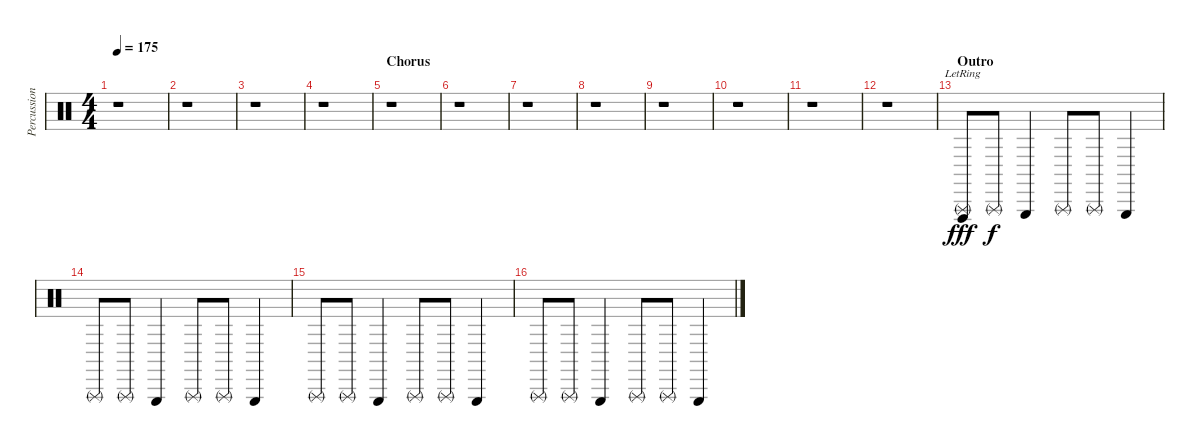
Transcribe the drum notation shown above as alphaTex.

\track ("Percussion" "Percussion") {instrument percussion}
\staff {score}
\articulation defaults
\ts (4 4)
\tempo 175
\clef neutral
\ks c
r.1{dy fff} |
r.1 |
r.1 |
r.1 |
\section ("" "Chorus")
r.1 |
r.1 |
r.1 |
r.1 |
r.1 |
r.1 |
r.1 |
r.1 |
\section ("" "Outro")
("Triangle (rnute)" "Vibraslap (hit)"{lr}).8 "Triangle (rnute)".8{dy f} "Triangle (hit)".4 "Triangle (rnute)".8 "Triangle (rnute)".8 "Triangle (hit)".4 |
"Triangle (rnute)".8 "Triangle (rnute)".8 "Triangle (hit)".4 "Triangle (rnute)".8 "Triangle (rnute)".8 "Triangle (hit)".4 |
"Triangle (rnute)".8 "Triangle (rnute)".8 "Triangle (hit)".4 "Triangle (rnute)".8 "Triangle (rnute)".8 "Triangle (hit)".4 |
"Triangle (rnute)".8 "Triangle (rnute)".8 "Triangle (hit)".4 "Triangle (rnute)".8 "Triangle (rnute)".8 "Triangle (hit)".4
